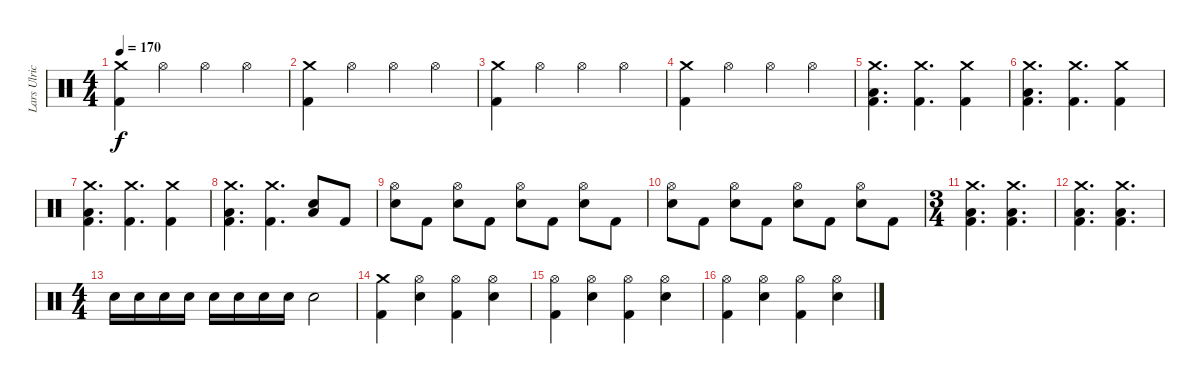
\track ("Lars Ulrich" "Lars Ulric") {instrument percussion}
\staff {score}
\articulation defaults
\ts (4 4)
\tempo 170
\clef neutral
\ks c
("Crash medium (hit)" "Kick (hit) 2").4{dy f} "Hi-Hat (open)".4 "Hi-Hat (open)".4 "Hi-Hat (open)".4 |
("Crash medium (hit)" "Kick (hit) 2").4 "Hi-Hat (open)".4 "Hi-Hat (open)".4 "Hi-Hat (open)".4 |
("Crash medium (hit)" "Kick (hit) 2").4 "Hi-Hat (open)".4 "Hi-Hat (open)".4 "Hi-Hat (open)".4 |
("Crash medium (hit)" "Kick (hit) 2").4 "Hi-Hat (open)".4 "Hi-Hat (open)".4 "Hi-Hat (open)".4 |
("Crash medium (hit)" "Low Floor Tom (hit)" "Kick (hit) 2").4{d} ("Crash medium (hit)" "Kick (hit) 2").4{d} ("Crash medium (hit)" "Kick (hit) 2").4 |
("Crash medium (hit)" "Low Floor Tom (hit)" "Kick (hit) 2").4{d} ("Crash medium (hit)" "Kick (hit) 2").4{d} ("Crash medium (hit)" "Kick (hit) 2").4 |
("Crash medium (hit)" "Low Floor Tom (hit)" "Kick (hit) 2").4{d} ("Crash medium (hit)" "Kick (hit) 2").4{d} ("Crash medium (hit)" "Kick (hit) 2").4 |
("Crash medium (hit)" "Low Floor Tom (hit)" "Kick (hit) 2").4{d} ("Crash medium (hit)" "Kick (hit) 2").4{d} ("Electric Snare (hit)" "Low Floor Tom (hit)").8 "Kick (hit) 2".8 |
("Hi-Hat (open)" "Electric Snare (hit)").8 "Kick (hit) 2".8 ("Hi-Hat (open)" "Electric Snare (hit)").8 "Kick (hit) 2".8 ("Hi-Hat (open)" "Electric Snare (hit)").8 "Kick (hit) 2".8 ("Hi-Hat (open)" "Electric Snare (hit)").8 "Kick (hit) 2".8 |
("Hi-Hat (open)" "Electric Snare (hit)").8 "Kick (hit) 2".8 ("Hi-Hat (open)" "Electric Snare (hit)").8 "Kick (hit) 2".8 ("Hi-Hat (open)" "Electric Snare (hit)").8 "Kick (hit) 2".8 ("Hi-Hat (open)" "Electric Snare (hit)").8 "Kick (hit) 2".8 |
\ts (3 4)
("Crash medium (hit)" "Low Floor Tom (hit)" "Kick (hit) 2").4{d} ("Crash medium (hit)" "Low Floor Tom (hit)" "Kick (hit) 2").4{d} |
("Crash medium (hit)" "Low Floor Tom (hit)" "Kick (hit) 2").4{d} ("Crash medium (hit)" "Low Floor Tom (hit)" "Kick (hit) 2").4{d} |
\ts (4 4)
"Electric Snare (hit)".16 "Electric Snare (hit)".16 "Electric Snare (hit)".16 "Electric Snare (hit)".16 "Electric Snare (hit)".16 "Electric Snare (hit)".16 "Electric Snare (hit)".16 "Electric Snare (hit)".16 "Electric Snare (hit)".2 |
("Crash medium (hit)" "Kick (hit) 2").4 ("Hi-Hat (open)" "Electric Snare (hit)").4 ("Hi-Hat (open)" "Kick (hit) 2").4 ("Hi-Hat (open)" "Electric Snare (hit)").4 |
("Hi-Hat (open)" "Kick (hit) 2").4 ("Hi-Hat (open)" "Electric Snare (hit)").4 ("Hi-Hat (open)" "Kick (hit) 2").4 ("Hi-Hat (open)" "Electric Snare (hit)").4 |
("Hi-Hat (open)" "Kick (hit) 2").4 ("Hi-Hat (open)" "Electric Snare (hit)").4 ("Hi-Hat (open)" "Kick (hit) 2").4 ("Hi-Hat (open)" "Electric Snare (hit)").4
